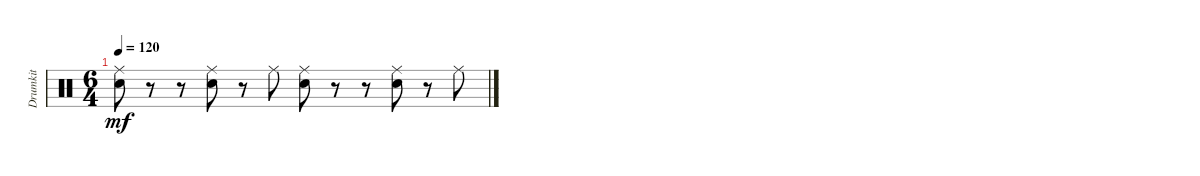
\track ("Drumkit" "Drumkit") {instrument percussion}
\staff {score}
\articulation defaults
\ts (6 4)
\tempo 120
\clef neutral
\ks c
("Ride (middle)" "Snare (hit) 2").8{dy mf} r.8 r.8 ("Ride (middle)" "Snare (hit) 2").8 r.8 "Ride (middle)".8 ("Ride (middle)" "Snare (hit) 2").8 r.8 r.8 ("Ride (middle)" "Snare (hit) 2").8 r.8 "Ride (middle)".8
